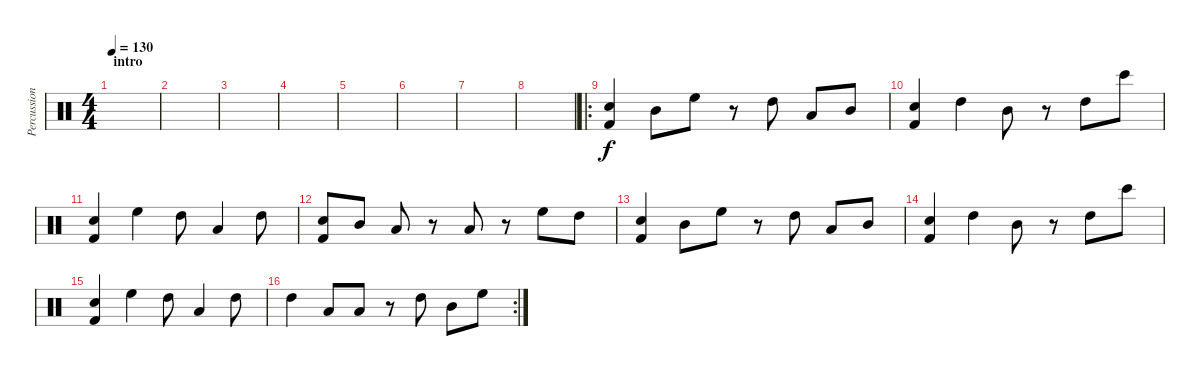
\track ("Percussions" "Percussion") {instrument percussion}
\staff {score}
\articulation defaults
\ts (4 4)
\section ("" "intro")
\tempo 130
\clef neutral
\ks c
|
|
|
|
|
|
|
|
\ro
("Kick (hit) 2" "Electric Snare (hit)").4 "Mid Tom (hit)".8 "High Floor Tom (hit)".8 r.8 "High Tom (hit)".8 "Low Tom (hit)".8 "Mid Tom (hit)".8 |
("Electric Snare (hit)" "Kick (hit) 2").4 "High Tom (hit)".4 "Mid Tom (hit)".8 r.8 "High Tom (hit)".8 "Bongo High (hit)".8 |
("Electric Snare (hit)" "Kick (hit) 2").4 "High Floor Tom (hit)".4 "High Tom (hit)".8 "Low Tom (hit)".4 "High Tom (hit)".8 |
("Kick (hit) 2" "Electric Snare (hit)").8 "Mid Tom (hit)".8 "Low Tom (hit)".8 r.8 "Low Tom (hit)".8 r.8 "High Floor Tom (hit)".8 "High Tom (hit)".8 |
("Kick (hit) 2" "Electric Snare (hit)").4 "Mid Tom (hit)".8 "High Floor Tom (hit)".8 r.8 "High Tom (hit)".8 "Low Tom (hit)".8 "Mid Tom (hit)".8 |
("Electric Snare (hit)" "Kick (hit) 2").4 "High Tom (hit)".4 "Mid Tom (hit)".8 r.8 "High Tom (hit)".8 "Bongo High (hit)".8 |
("Electric Snare (hit)" "Kick (hit) 2").4 "High Floor Tom (hit)".4 "High Tom (hit)".8 "Low Tom (hit)".4 "High Tom (hit)".8 |
\rc 2 "High Tom (hit)".4 "Low Tom (hit)".8 "Low Tom (hit)".8
r.8 "High Tom (hit)".8 "Mid Tom (hit)".8 "High Floor Tom (hit)".8
